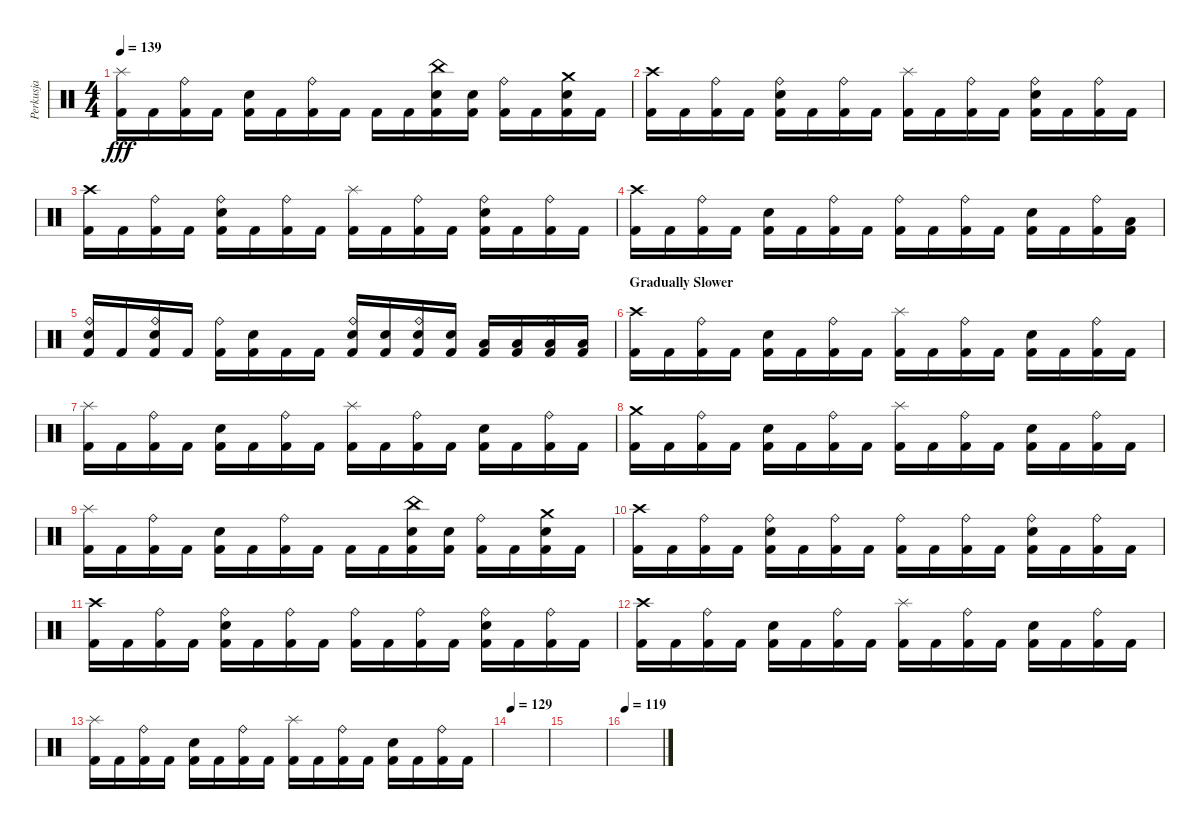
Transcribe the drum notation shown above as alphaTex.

\track ("Perkusja" "Perkusja") {instrument percussion}
\staff {score}
\articulation defaults
\ts (4 4)
\tempo 139
\clef neutral
\ks c
("Splash (hit)" "Kick (hit) 2").16{dy fff volume 16} "Kick (hit) 2".16 ("Ride (bell)" "Kick (hit) 2").16 "Kick (hit) 2".16 ("Snare (hit) 2" "Kick (hit) 2").16 "Kick (hit) 2".16 ("Ride (bell)" "Kick (hit) 2").16 "Kick (hit) 2".16 "Kick (hit) 2".16 "Kick (hit) 2".16 ("China (hit)" "Snare (hit) 2" "Kick (hit) 2").16 ("Snare (hit) 2" "Kick (hit) 2").16 ("Ride (bell)" "Kick (hit) 2").16 "Kick (hit) 2".16 ("Crash medium (hit)" "Snare (hit) 2" "Kick (hit) 2").16 "Kick (hit) 2".16 |
("Crash high (hit)" "Kick (hit) 2").16{volume 16} "Kick (hit) 2".16 ("Ride (bell)" "Kick (hit) 2").16 "Kick (hit) 2".16 ("Ride (bell)" "Snare (hit) 2" "Kick (hit) 2").16 "Kick (hit) 2".16 ("Ride (bell)" "Kick (hit) 2").16 "Kick (hit) 2".16 ("Splash (hit)" "Kick (hit) 2").16 "Kick (hit) 2".16 ("Ride (bell)" "Kick (hit) 2").16 "Kick (hit) 2".16 ("Ride (bell)" "Snare (hit) 2" "Kick (hit) 2").16 "Kick (hit) 2".16 ("Ride (bell)" "Kick (hit) 2").16 "Kick (hit) 2".16 |
("Crash high (hit)" "Kick (hit) 2").16{volume 16} "Kick (hit) 2".16 ("Ride (bell)" "Kick (hit) 2").16 "Kick (hit) 2".16 ("Ride (bell)" "Snare (hit) 2" "Kick (hit) 2").16 "Kick (hit) 2".16 ("Ride (bell)" "Kick (hit) 2").16 "Kick (hit) 2".16 ("Splash (hit)" "Kick (hit) 2").16 "Kick (hit) 2".16 ("Ride (bell)" "Kick (hit) 2").16 "Kick (hit) 2".16 ("Ride (bell)" "Snare (hit) 2" "Kick (hit) 2").16 "Kick (hit) 2".16 ("Ride (bell)" "Kick (hit) 2").16 "Kick (hit) 2".16 |
("Crash high (hit)" "Kick (hit) 2").16{volume 16} "Kick (hit) 2".16 ("Ride (bell)" "Kick (hit) 2").16 "Kick (hit) 2".16 ("Snare (hit) 2" "Kick (hit) 2").16 "Kick (hit) 2".16 ("Ride (bell)" "Kick (hit) 2").16 "Kick (hit) 2".16 ("Ride (bell)" "Kick (hit) 2").16 "Kick (hit) 2".16 ("Ride (bell)" "Kick (hit) 2").16 "Kick (hit) 2".16 ("Snare (hit) 2" "Kick (hit) 2").16 "Kick (hit) 2".16 ("Ride (bell)" "Kick (hit) 2").16 ("Low Floor Tom (hit)" "Kick (hit) 2").16 |
("Ride (bell)" "Snare (hit) 2" "Kick (hit) 2").16{volume 16} "Kick (hit) 2".16 ("Ride (bell)" "Snare (hit) 2" "Kick (hit) 2").16 "Kick (hit) 2".16 ("Ride (bell)" "Kick (hit) 2").16 ("Snare (hit) 2" "Kick (hit) 2").16 "Kick (hit) 2".16 "Kick (hit) 2".16 ("Ride (bell)" "Snare (hit) 2" "Kick (hit) 2").16 ("Snare (hit) 2" "Kick (hit) 2").16 ("Ride (bell)" "Snare (hit) 2" "Kick (hit) 2").16 ("Snare (hit) 2" "Kick (hit) 2").16 ("Low Floor Tom (hit)" "Kick (hit) 2").16 ("Low Floor Tom (hit)" "Kick (hit) 2").16 ("Ride (bell)" "Low Floor Tom (hit)" "Kick (hit) 2").16 ("Low Floor Tom (hit)" "Kick (hit) 2").16 |
\section ("" "Gradually Slower")
("Crash high (hit)" "Kick (hit) 2").16{volume 11} "Kick (hit) 2".16 ("Ride (bell)" "Kick (hit) 2").16 "Kick (hit) 2".16 ("Snare (hit) 2" "Kick (hit) 2").16 "Kick (hit) 2".16 ("Ride (bell)" "Kick (hit) 2").16 "Kick (hit) 2".16 ("Splash (hit)" "Kick (hit) 2").16 "Kick (hit) 2".16 ("Ride (bell)" "Kick (hit) 2").16 "Kick (hit) 2".16 ("Snare (hit) 2" "Kick (hit) 2").16 "Kick (hit) 2".16 ("Ride (bell)" "Kick (hit) 2").16 "Kick (hit) 2".16 |
("Splash (hit)" "Kick (hit) 2").16 "Kick (hit) 2".16 ("Ride (bell)" "Kick (hit) 2").16 "Kick (hit) 2".16 ("Snare (hit) 2" "Kick (hit) 2").16 "Kick (hit) 2".16 ("Ride (bell)" "Kick (hit) 2").16 "Kick (hit) 2".16 ("Splash (hit)" "Kick (hit) 2").16 "Kick (hit) 2".16 ("Ride (bell)" "Kick (hit) 2").16 "Kick (hit) 2".16 ("Snare (hit) 2" "Kick (hit) 2").16 "Kick (hit) 2".16 ("Ride (bell)" "Kick (hit) 2").16 "Kick (hit) 2".16 |
("Crash medium (hit)" "Kick (hit) 2").16{volume 8} "Kick (hit) 2".16 ("Ride (bell)" "Kick (hit) 2").16 "Kick (hit) 2".16 ("Snare (hit) 2" "Kick (hit) 2").16 "Kick (hit) 2".16 ("Ride (bell)" "Kick (hit) 2").16 "Kick (hit) 2".16 ("Splash (hit)" "Kick (hit) 2").16 "Kick (hit) 2".16 ("Ride (bell)" "Kick (hit) 2").16 "Kick (hit) 2".16 ("Snare (hit) 2" "Kick (hit) 2").16 "Kick (hit) 2".16 ("Ride (bell)" "Kick (hit) 2").16 "Kick (hit) 2".16 |
("Splash (hit)" "Kick (hit) 2").16 "Kick (hit) 2".16 ("Ride (bell)" "Kick (hit) 2").16 "Kick (hit) 2".16 ("Snare (hit) 2" "Kick (hit) 2").16 "Kick (hit) 2".16 ("Ride (bell)" "Kick (hit) 2").16 "Kick (hit) 2".16 "Kick (hit) 2".16 "Kick (hit) 2".16 ("China (hit)" "Snare (hit) 2" "Kick (hit) 2").16 ("Snare (hit) 2" "Kick (hit) 2").16 ("Ride (bell)" "Kick (hit) 2").16 "Kick (hit) 2".16 ("Crash medium (hit)" "Snare (hit) 2" "Kick (hit) 2").16 "Kick (hit) 2".16 |
("Crash high (hit)" "Kick (hit) 2").16{volume 5} "Kick (hit) 2".16 ("Ride (bell)" "Kick (hit) 2").16 "Kick (hit) 2".16 ("Ride (bell)" "Snare (hit) 2" "Kick (hit) 2").16 "Kick (hit) 2".16 ("Ride (bell)" "Kick (hit) 2").16 "Kick (hit) 2".16 ("Ride (bell)" "Kick (hit) 2").16 "Kick (hit) 2".16 ("Ride (bell)" "Kick (hit) 2").16 "Kick (hit) 2".16 ("Ride (bell)" "Snare (hit) 2" "Kick (hit) 2").16 "Kick (hit) 2".16 ("Ride (bell)" "Kick (hit) 2").16 "Kick (hit) 2".16 |
("Crash high (hit)" "Kick (hit) 2").16 "Kick (hit) 2".16 ("Ride (bell)" "Kick (hit) 2").16 "Kick (hit) 2".16 ("Ride (bell)" "Snare (hit) 2" "Kick (hit) 2").16 "Kick (hit) 2".16 ("Ride (bell)" "Kick (hit) 2").16 "Kick (hit) 2".16 ("Ride (bell)" "Kick (hit) 2").16 "Kick (hit) 2".16 ("Ride (bell)" "Kick (hit) 2").16 "Kick (hit) 2".16 ("Ride (bell)" "Snare (hit) 2" "Kick (hit) 2").16 "Kick (hit) 2".16 ("Ride (bell)" "Kick (hit) 2").16 "Kick (hit) 2".16 |
("Crash high (hit)" "Kick (hit) 2").16{volume 1} "Kick (hit) 2".16 ("Ride (bell)" "Kick (hit) 2").16 "Kick (hit) 2".16 ("Snare (hit) 2" "Kick (hit) 2").16 "Kick (hit) 2".16 ("Ride (bell)" "Kick (hit) 2").16 "Kick (hit) 2".16 ("Splash (hit)" "Kick (hit) 2").16 "Kick (hit) 2".16 ("Ride (bell)" "Kick (hit) 2").16 "Kick (hit) 2".16 ("Snare (hit) 2" "Kick (hit) 2").16 "Kick (hit) 2".16 ("Ride (bell)" "Kick (hit) 2").16 "Kick (hit) 2".16 |
("Splash (hit)" "Kick (hit) 2").16 "Kick (hit) 2".16 ("Ride (bell)" "Kick (hit) 2").16 "Kick (hit) 2".16 ("Snare (hit) 2" "Kick (hit) 2").16 "Kick (hit) 2".16 ("Ride (bell)" "Kick (hit) 2").16 "Kick (hit) 2".16 ("Splash (hit)" "Kick (hit) 2").16 "Kick (hit) 2".16 ("Ride (bell)" "Kick (hit) 2").16 "Kick (hit) 2".16 ("Snare (hit) 2" "Kick (hit) 2").16 "Kick (hit) 2".16 ("Ride (bell)" "Kick (hit) 2").16 "Kick (hit) 2".16 |
\tempo 129
|
|
\tempo 119
